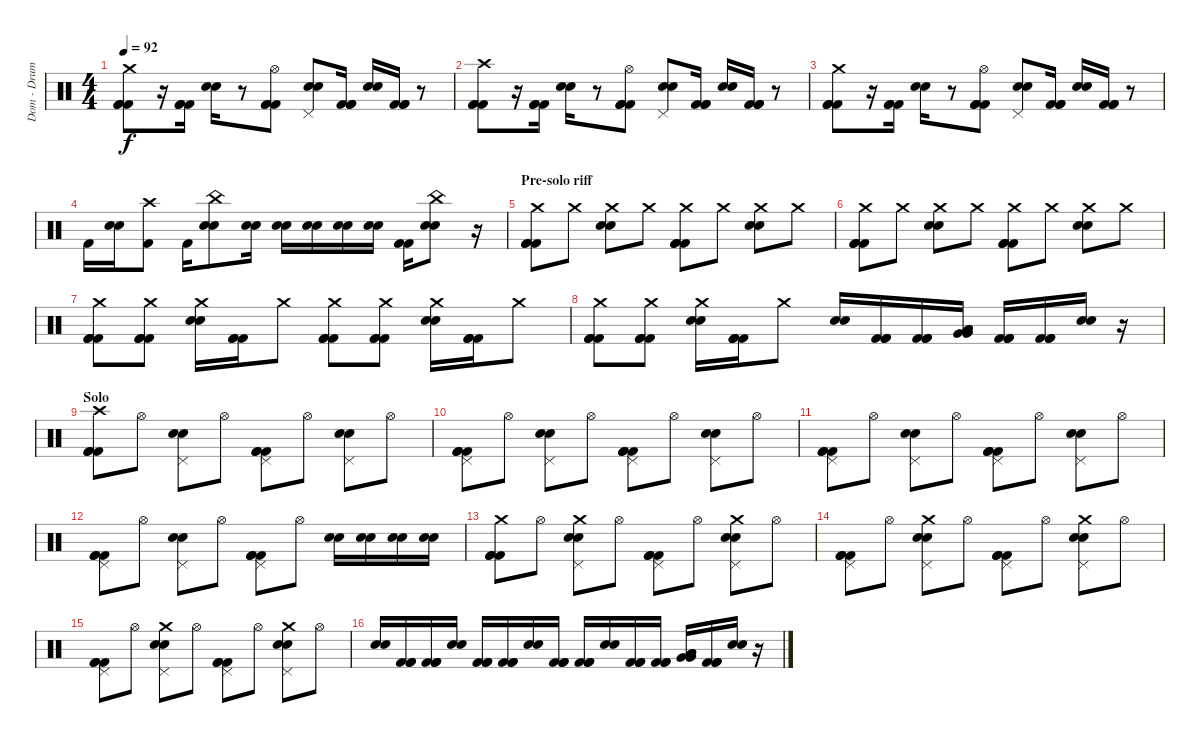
\track ("Dom - Drums " "Dom - Drum") {instrument percussion}
\staff {score}
\articulation defaults
\ts (4 4)
\tempo 92
\clef neutral
\ks c
("Crash medium (hit)" "Kick (hit) 2" "Kick (hit) 2" "Kick (hit) 2").8{dy f} r.16 ("Kick (hit) 2" "Kick (hit) 2" "Kick (hit) 2").16 ("Snare (hit) 2" "Electric Snare (hit)").16 r.8 ("Hi-Hat (open)" "Kick (hit) 2" "Kick (hit) 2" "Kick (hit) 2").8 ("Pedal Hi-Hat (hit)" "Snare (hit) 2" "Electric Snare (hit)").8 ("Kick (hit) 2" "Kick (hit) 2" "Kick (hit) 2").16 ("Snare (hit) 2" "Electric Snare (hit)").16 ("Kick (hit) 2" "Kick (hit) 2" "Kick (hit) 2").16 r.8 |
("Kick (hit) 2" "Kick (hit) 2" "Kick (hit) 2" "Crash high (hit)").8 r.16 ("Kick (hit) 2" "Kick (hit) 2" "Kick (hit) 2").16 ("Snare (hit) 2" "Electric Snare (hit)").16 r.8 ("Hi-Hat (open)" "Kick (hit) 2" "Kick (hit) 2" "Kick (hit) 2").8 ("Pedal Hi-Hat (hit)" "Snare (hit) 2" "Electric Snare (hit)").8 ("Kick (hit) 2" "Kick (hit) 2" "Kick (hit) 2").16 ("Snare (hit) 2" "Electric Snare (hit)").16 ("Kick (hit) 2" "Kick (hit) 2" "Kick (hit) 2").16 r.8 |
("Crash medium (hit)" "Kick (hit) 2" "Kick (hit) 2" "Kick (hit) 2").8 r.16 ("Kick (hit) 2" "Kick (hit) 2" "Kick (hit) 2").16 ("Snare (hit) 2" "Electric Snare (hit)").16 r.8 ("Hi-Hat (open)" "Kick (hit) 2" "Kick (hit) 2" "Kick (hit) 2").8 ("Pedal Hi-Hat (hit)" "Snare (hit) 2" "Electric Snare (hit)").8 ("Kick (hit) 2" "Kick (hit) 2" "Kick (hit) 2").16 ("Snare (hit) 2" "Electric Snare (hit)").16 ("Kick (hit) 2" "Kick (hit) 2" "Kick (hit) 2").16 r.8 |
"Kick (hit) 2".16 ("Snare (hit) 2" "Electric Snare (hit)").16 ("Crash high (hit)" "Kick (hit) 2").8 "Kick (hit) 2".16 ("China (hit)" "Snare (hit) 2" "Electric Snare (hit)").8 ("Snare (hit) 2" "Electric Snare (hit)").16 ("Snare (hit) 2" "Electric Snare (hit)").16 ("Snare (hit) 2" "Electric Snare (hit)").16 ("Snare (hit) 2" "Electric Snare (hit)").16 ("Snare (hit) 2" "Electric Snare (hit)").16 ("Kick (hit) 2" "Kick (hit) 2").16 ("China (hit)" "Snare (hit) 2" "Electric Snare (hit)").8 r.16 |
\section ("" "Pre-solo riff")
("Crash medium (hit)" "Kick (hit) 2" "Kick (hit) 2" "Kick (hit) 2").8 "Crash medium (hit)".8 ("Crash medium (hit)" "Snare (hit) 2" "Electric Snare (hit)").8 "Crash medium (hit)".8 ("Crash medium (hit)" "Kick (hit) 2" "Kick (hit) 2" "Kick (hit) 2").8 "Crash medium (hit)".8 ("Crash medium (hit)" "Snare (hit) 2" "Electric Snare (hit)").8 "Crash medium (hit)".8 |
("Crash medium (hit)" "Kick (hit) 2" "Kick (hit) 2" "Kick (hit) 2").8 "Crash medium (hit)".8 ("Crash medium (hit)" "Snare (hit) 2" "Electric Snare (hit)").8 "Crash medium (hit)".8 ("Crash medium (hit)" "Kick (hit) 2" "Kick (hit) 2" "Kick (hit) 2").8 "Crash medium (hit)".8 ("Crash medium (hit)" "Snare (hit) 2" "Electric Snare (hit)").8 "Crash medium (hit)".8 |
("Crash medium (hit)" "Kick (hit) 2" "Kick (hit) 2" "Kick (hit) 2").8 ("Crash medium (hit)" "Kick (hit) 2" "Kick (hit) 2" "Kick (hit) 2").8 ("Crash medium (hit)" "Snare (hit) 2" "Electric Snare (hit)").16 ("Kick (hit) 2" "Kick (hit) 2" "Kick (hit) 2").16 "Crash medium (hit)".8 ("Crash medium (hit)" "Kick (hit) 2" "Kick (hit) 2" "Kick (hit) 2").8 ("Crash medium (hit)" "Kick (hit) 2" "Kick (hit) 2" "Kick (hit) 2").8 ("Crash medium (hit)" "Snare (hit) 2" "Electric Snare (hit)").16 ("Kick (hit) 2" "Kick (hit) 2" "Kick (hit) 2").16 "Crash medium (hit)".8 |
("Crash medium (hit)" "Kick (hit) 2" "Kick (hit) 2" "Kick (hit) 2").8 ("Crash medium (hit)" "Kick (hit) 2" "Kick (hit) 2" "Kick (hit) 2").8 ("Crash medium (hit)" "Snare (hit) 2" "Electric Snare (hit)").16 ("Kick (hit) 2" "Kick (hit) 2" "Kick (hit) 2" "Kick (hit) 2").16 "Crash medium (hit)".8 ("Snare (hit) 2" "Electric Snare (hit)").16 ("Kick (hit) 2" "Kick (hit) 2" "Kick (hit) 2").16 ("Kick (hit) 2" "Kick (hit) 2" "Kick (hit) 2").16 ("Very Low Tom (hit)" "Very Low Tom (hit)" "Low Floor Tom (hit)" "Low Floor Tom (hit)").16 ("Kick (hit) 2" "Kick (hit) 2" "Kick (hit) 2").16 ("Kick (hit) 2" "Kick (hit) 2" "Kick (hit) 2").16 ("Snare (hit) 2" "Electric Snare (hit)").16 r.16 |
\section ("" "Solo")
("Crash high (hit)" "Kick (hit) 2" "Kick (hit) 2" "Kick (hit) 2").8 "Hi-Hat (open)".8 ("Pedal Hi-Hat (hit)" "Snare (hit) 2" "Electric Snare (hit)").8 "Hi-Hat (open)".8 ("Pedal Hi-Hat (hit)" "Kick (hit) 2" "Kick (hit) 2" "Kick (hit) 2").8 "Hi-Hat (open)".8 ("Pedal Hi-Hat (hit)" "Snare (hit) 2" "Electric Snare (hit)").8 "Hi-Hat (open)".8 |
("Pedal Hi-Hat (hit)" "Kick (hit) 2" "Kick (hit) 2" "Kick (hit) 2").8 "Hi-Hat (open)".8 ("Pedal Hi-Hat (hit)" "Snare (hit) 2" "Electric Snare (hit)").8 "Hi-Hat (open)".8 ("Pedal Hi-Hat (hit)" "Kick (hit) 2" "Kick (hit) 2" "Kick (hit) 2").8 "Hi-Hat (open)".8 ("Pedal Hi-Hat (hit)" "Snare (hit) 2" "Electric Snare (hit)").8 "Hi-Hat (open)".8 |
("Pedal Hi-Hat (hit)" "Kick (hit) 2" "Kick (hit) 2" "Kick (hit) 2").8 "Hi-Hat (open)".8 ("Pedal Hi-Hat (hit)" "Snare (hit) 2" "Electric Snare (hit)").8 "Hi-Hat (open)".8 ("Pedal Hi-Hat (hit)" "Kick (hit) 2" "Kick (hit) 2" "Kick (hit) 2").8 "Hi-Hat (open)".8 ("Pedal Hi-Hat (hit)" "Snare (hit) 2" "Electric Snare (hit)").8 "Hi-Hat (open)".8 |
("Pedal Hi-Hat (hit)" "Kick (hit) 2" "Kick (hit) 2" "Kick (hit) 2").8 "Hi-Hat (open)".8 ("Pedal Hi-Hat (hit)" "Snare (hit) 2" "Electric Snare (hit)").8 "Hi-Hat (open)".8 ("Pedal Hi-Hat (hit)" "Kick (hit) 2" "Kick (hit) 2" "Kick (hit) 2").8 "Hi-Hat (open)".8 ("Snare (hit) 2" "Electric Snare (hit)").16 ("Snare (hit) 2" "Electric Snare (hit)").16 ("Snare (hit) 2" "Electric Snare (hit)").16 ("Snare (hit) 2" "Electric Snare (hit)").16 |
("Crash medium (hit)" "Kick (hit) 2" "Kick (hit) 2" "Kick (hit) 2").8 "Hi-Hat (open)".8 ("Pedal Hi-Hat (hit)" "Crash medium (hit)" "Snare (hit) 2" "Electric Snare (hit)").8 "Hi-Hat (open)".8 ("Pedal Hi-Hat (hit)" "Kick (hit) 2" "Kick (hit) 2" "Kick (hit) 2").8 "Hi-Hat (open)".8 ("Pedal Hi-Hat (hit)" "Crash medium (hit)" "Snare (hit) 2" "Electric Snare (hit)").8 "Hi-Hat (open)".8 |
("Pedal Hi-Hat (hit)" "Kick (hit) 2" "Kick (hit) 2" "Kick (hit) 2").8 "Hi-Hat (open)".8 ("Pedal Hi-Hat (hit)" "Crash medium (hit)" "Snare (hit) 2" "Electric Snare (hit)").8 "Hi-Hat (open)".8 ("Pedal Hi-Hat (hit)" "Kick (hit) 2" "Kick (hit) 2" "Kick (hit) 2").8 "Hi-Hat (open)".8 ("Pedal Hi-Hat (hit)" "Crash medium (hit)" "Snare (hit) 2" "Electric Snare (hit)").8 "Hi-Hat (open)".8 |
("Pedal Hi-Hat (hit)" "Kick (hit) 2" "Kick (hit) 2" "Kick (hit) 2").8 "Hi-Hat (open)".8 ("Pedal Hi-Hat (hit)" "Crash medium (hit)" "Snare (hit) 2" "Electric Snare (hit)").8 "Hi-Hat (open)".8 ("Pedal Hi-Hat (hit)" "Kick (hit) 2" "Kick (hit) 2" "Kick (hit) 2").8 "Hi-Hat (open)".8 ("Pedal Hi-Hat (hit)" "Crash medium (hit)" "Snare (hit) 2" "Electric Snare (hit)").8 "Hi-Hat (open)".8 |
("Electric Snare (hit)" "Snare (hit) 2").16 ("Kick (hit) 2" "Kick (hit) 2" "Kick (hit) 2").16 ("Kick (hit) 2" "Kick (hit) 2" "Kick (hit) 2").16 ("Snare (hit) 2" "Electric Snare (hit)").16 ("Kick (hit) 2" "Kick (hit) 2" "Kick (hit) 2").16 ("Kick (hit) 2" "Kick (hit) 2" "Kick (hit) 2").16 ("Snare (hit) 2" "Electric Snare (hit)").16 ("Kick (hit) 2" "Kick (hit) 2" "Kick (hit) 2").16 ("Kick (hit) 2" "Kick (hit) 2" "Kick (hit) 2").16 ("Snare (hit) 2" "Electric Snare (hit)").16 ("Kick (hit) 2" "Kick (hit) 2" "Kick (hit) 2").16 ("Kick (hit) 2" "Kick (hit) 2" "Kick (hit) 2").16 ("Low Floor Tom (hit)" "Low Floor Tom (hit)" "Very Low Tom (hit)" "Very Low Tom (hit)").16 ("Kick (hit) 2" "Kick (hit) 2" "Kick (hit) 2").16 ("Snare (hit) 2" "Electric Snare (hit)").16 r.16
